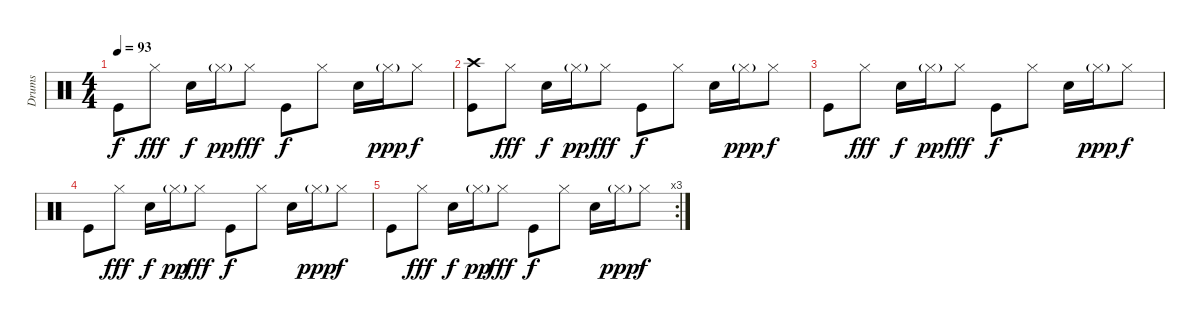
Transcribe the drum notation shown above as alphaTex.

\track ("Drums" "Drums") {instrument percussion}
\staff {score}
\articulation defaults
\ts (4 4)
\tempo 93
\clef neutral
\ks c "Kick (hit)".8{dy f} "Hi-Hat (closed)".8{dy fff} "Snare (hit) 2".16{dy f} "Hi-Hat (closed)"{g}.16{dy pp} "Hi-Hat (closed)".8{dy fff} "Kick (hit)".8{dy f} "Hi-Hat (closed)".8 "Snare (hit) 2".16 "Hi-Hat (closed)"{g}.16{dy ppp} "Hi-Hat (closed)".8{dy f}
|
("Crash high (hit)" "Kick (hit)").8 "Hi-Hat (closed)".8{dy fff} "Snare (hit) 2".16{dy f} "Hi-Hat (closed)"{g}.16{dy pp} "Hi-Hat (closed)".8{dy fff} "Kick (hit)".8{dy f} "Hi-Hat (closed)".8 "Snare (hit) 2".16 "Hi-Hat (closed)"{g}.16{dy ppp} "Hi-Hat (closed)".8{dy f} |
"Kick (hit)".8 "Hi-Hat (closed)".8{dy fff} "Snare (hit) 2".16{dy f} "Hi-Hat (closed)"{g}.16{dy pp} "Hi-Hat (closed)".8{dy fff} "Kick (hit)".8{dy f} "Hi-Hat (closed)".8 "Snare (hit) 2".16 "Hi-Hat (closed)"{g}.16{dy ppp} "Hi-Hat (closed)".8{dy f} |
"Kick (hit)".8 "Hi-Hat (closed)".8{dy fff} "Snare (hit) 2".16{dy f} "Hi-Hat (closed)"{g}.16{dy pp} "Hi-Hat (closed)".8{dy fff} "Kick (hit)".8{dy f} "Hi-Hat (closed)".8 "Snare (hit) 2".16 "Hi-Hat (closed)"{g}.16{dy ppp} "Hi-Hat (closed)".8{dy f} |
\rc 3 "Kick (hit)".8 "Hi-Hat (closed)".8{dy fff} "Snare (hit) 2".16{dy f} "Hi-Hat (closed)"{g}.16{dy pp} "Hi-Hat (closed)".8{dy fff} "Kick (hit)".8{dy f} "Hi-Hat (closed)".8 "Snare (hit) 2".16 "Hi-Hat (closed)"{g}.16{dy ppp} "Hi-Hat (closed)".8{dy f}
